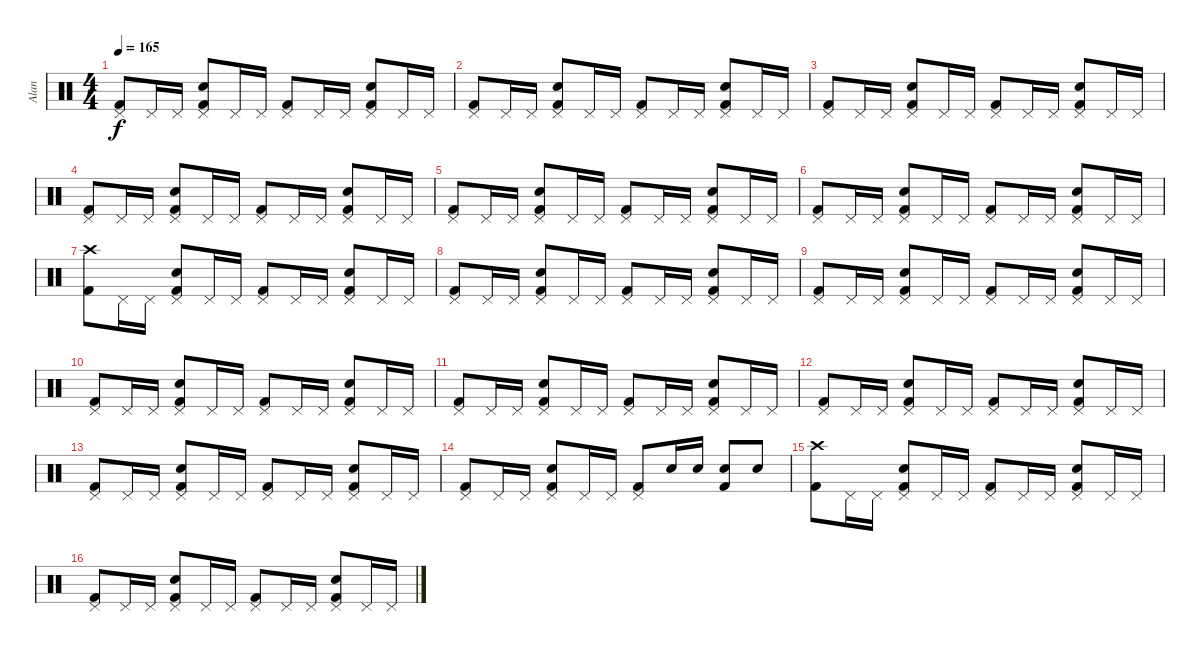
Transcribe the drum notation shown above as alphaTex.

\track ("Alan" "Alan") {instrument percussion}
\staff {score}
\articulation defaults
\ts (4 4)
\tempo 165
\clef neutral
\ks c
("Kick (hit) 2" "Pedal Hi-Hat (hit)").8{dy f} "Pedal Hi-Hat (hit)".16 "Pedal Hi-Hat (hit)".16 ("Pedal Hi-Hat (hit)" "Kick (hit) 2" "Snare (hit) 2").8 "Pedal Hi-Hat (hit)".16 "Pedal Hi-Hat (hit)".16 ("Pedal Hi-Hat (hit)" "Kick (hit) 2").8 "Pedal Hi-Hat (hit)".16 "Pedal Hi-Hat (hit)".16 ("Pedal Hi-Hat (hit)" "Kick (hit) 2" "Snare (hit) 2").8 "Pedal Hi-Hat (hit)".16 "Pedal Hi-Hat (hit)".16 |
("Kick (hit) 2" "Pedal Hi-Hat (hit)").8 "Pedal Hi-Hat (hit)".16 "Pedal Hi-Hat (hit)".16 ("Pedal Hi-Hat (hit)" "Kick (hit) 2" "Snare (hit) 2").8 "Pedal Hi-Hat (hit)".16 "Pedal Hi-Hat (hit)".16 ("Pedal Hi-Hat (hit)" "Kick (hit) 2").8 "Pedal Hi-Hat (hit)".16 "Pedal Hi-Hat (hit)".16 ("Pedal Hi-Hat (hit)" "Kick (hit) 2" "Snare (hit) 2").8 "Pedal Hi-Hat (hit)".16 "Pedal Hi-Hat (hit)".16 |
("Kick (hit) 2" "Pedal Hi-Hat (hit)").8 "Pedal Hi-Hat (hit)".16 "Pedal Hi-Hat (hit)".16 ("Pedal Hi-Hat (hit)" "Kick (hit) 2" "Snare (hit) 2").8 "Pedal Hi-Hat (hit)".16 "Pedal Hi-Hat (hit)".16 ("Pedal Hi-Hat (hit)" "Kick (hit) 2").8 "Pedal Hi-Hat (hit)".16 "Pedal Hi-Hat (hit)".16 ("Pedal Hi-Hat (hit)" "Kick (hit) 2" "Snare (hit) 2").8 "Pedal Hi-Hat (hit)".16 "Pedal Hi-Hat (hit)".16 |
("Kick (hit) 2" "Pedal Hi-Hat (hit)").8 "Pedal Hi-Hat (hit)".16 "Pedal Hi-Hat (hit)".16 ("Pedal Hi-Hat (hit)" "Kick (hit) 2" "Snare (hit) 2").8 "Pedal Hi-Hat (hit)".16 "Pedal Hi-Hat (hit)".16 ("Pedal Hi-Hat (hit)" "Kick (hit) 2").8 "Pedal Hi-Hat (hit)".16 "Pedal Hi-Hat (hit)".16 ("Pedal Hi-Hat (hit)" "Kick (hit) 2" "Snare (hit) 2").8 "Pedal Hi-Hat (hit)".16 "Pedal Hi-Hat (hit)".16 |
("Kick (hit) 2" "Pedal Hi-Hat (hit)").8 "Pedal Hi-Hat (hit)".16 "Pedal Hi-Hat (hit)".16 ("Pedal Hi-Hat (hit)" "Kick (hit) 2" "Snare (hit) 2").8 "Pedal Hi-Hat (hit)".16 "Pedal Hi-Hat (hit)".16 ("Pedal Hi-Hat (hit)" "Kick (hit) 2").8 "Pedal Hi-Hat (hit)".16 "Pedal Hi-Hat (hit)".16 ("Pedal Hi-Hat (hit)" "Kick (hit) 2" "Snare (hit) 2").8 "Pedal Hi-Hat (hit)".16 "Pedal Hi-Hat (hit)".16 |
("Kick (hit) 2" "Pedal Hi-Hat (hit)").8 "Pedal Hi-Hat (hit)".16 "Pedal Hi-Hat (hit)".16 ("Pedal Hi-Hat (hit)" "Kick (hit) 2" "Snare (hit) 2").8 "Pedal Hi-Hat (hit)".16 "Pedal Hi-Hat (hit)".16 ("Pedal Hi-Hat (hit)" "Kick (hit) 2").8 "Pedal Hi-Hat (hit)".16 "Pedal Hi-Hat (hit)".16 ("Pedal Hi-Hat (hit)" "Kick (hit) 2" "Snare (hit) 2").8 "Pedal Hi-Hat (hit)".16 "Pedal Hi-Hat (hit)".16 |
("Kick (hit) 2" "Crash high (hit)").8 "Pedal Hi-Hat (hit)".16 "Pedal Hi-Hat (hit)".16 ("Pedal Hi-Hat (hit)" "Kick (hit) 2" "Snare (hit) 2").8 "Pedal Hi-Hat (hit)".16 "Pedal Hi-Hat (hit)".16 ("Pedal Hi-Hat (hit)" "Kick (hit) 2").8 "Pedal Hi-Hat (hit)".16 "Pedal Hi-Hat (hit)".16 ("Pedal Hi-Hat (hit)" "Kick (hit) 2" "Snare (hit) 2").8 "Pedal Hi-Hat (hit)".16 "Pedal Hi-Hat (hit)".16 |
("Kick (hit) 2" "Pedal Hi-Hat (hit)").8 "Pedal Hi-Hat (hit)".16 "Pedal Hi-Hat (hit)".16 ("Pedal Hi-Hat (hit)" "Kick (hit) 2" "Snare (hit) 2").8 "Pedal Hi-Hat (hit)".16 "Pedal Hi-Hat (hit)".16 ("Pedal Hi-Hat (hit)" "Kick (hit) 2").8 "Pedal Hi-Hat (hit)".16 "Pedal Hi-Hat (hit)".16 ("Pedal Hi-Hat (hit)" "Kick (hit) 2" "Snare (hit) 2").8 "Pedal Hi-Hat (hit)".16 "Pedal Hi-Hat (hit)".16 |
("Kick (hit) 2" "Pedal Hi-Hat (hit)").8 "Pedal Hi-Hat (hit)".16 "Pedal Hi-Hat (hit)".16 ("Pedal Hi-Hat (hit)" "Kick (hit) 2" "Snare (hit) 2").8 "Pedal Hi-Hat (hit)".16 "Pedal Hi-Hat (hit)".16 ("Pedal Hi-Hat (hit)" "Kick (hit) 2").8 "Pedal Hi-Hat (hit)".16 "Pedal Hi-Hat (hit)".16 ("Pedal Hi-Hat (hit)" "Kick (hit) 2" "Snare (hit) 2").8 "Pedal Hi-Hat (hit)".16 "Pedal Hi-Hat (hit)".16 |
("Kick (hit) 2" "Pedal Hi-Hat (hit)").8 "Pedal Hi-Hat (hit)".16 "Pedal Hi-Hat (hit)".16 ("Pedal Hi-Hat (hit)" "Kick (hit) 2" "Snare (hit) 2").8 "Pedal Hi-Hat (hit)".16 "Pedal Hi-Hat (hit)".16 ("Pedal Hi-Hat (hit)" "Kick (hit) 2").8 "Pedal Hi-Hat (hit)".16 "Pedal Hi-Hat (hit)".16 ("Pedal Hi-Hat (hit)" "Kick (hit) 2" "Snare (hit) 2").8 "Pedal Hi-Hat (hit)".16 "Pedal Hi-Hat (hit)".16 |
("Kick (hit) 2" "Pedal Hi-Hat (hit)").8 "Pedal Hi-Hat (hit)".16 "Pedal Hi-Hat (hit)".16 ("Pedal Hi-Hat (hit)" "Kick (hit) 2" "Snare (hit) 2").8 "Pedal Hi-Hat (hit)".16 "Pedal Hi-Hat (hit)".16 ("Pedal Hi-Hat (hit)" "Kick (hit) 2").8 "Pedal Hi-Hat (hit)".16 "Pedal Hi-Hat (hit)".16 ("Pedal Hi-Hat (hit)" "Kick (hit) 2" "Snare (hit) 2").8 "Pedal Hi-Hat (hit)".16 "Pedal Hi-Hat (hit)".16 |
("Kick (hit) 2" "Pedal Hi-Hat (hit)").8 "Pedal Hi-Hat (hit)".16 "Pedal Hi-Hat (hit)".16 ("Pedal Hi-Hat (hit)" "Kick (hit) 2" "Snare (hit) 2").8 "Pedal Hi-Hat (hit)".16 "Pedal Hi-Hat (hit)".16 ("Pedal Hi-Hat (hit)" "Kick (hit) 2").8 "Pedal Hi-Hat (hit)".16 "Pedal Hi-Hat (hit)".16 ("Pedal Hi-Hat (hit)" "Kick (hit) 2" "Snare (hit) 2").8 "Pedal Hi-Hat (hit)".16 "Pedal Hi-Hat (hit)".16 |
("Kick (hit) 2" "Pedal Hi-Hat (hit)").8 "Pedal Hi-Hat (hit)".16 "Pedal Hi-Hat (hit)".16 ("Pedal Hi-Hat (hit)" "Kick (hit) 2" "Snare (hit) 2").8 "Pedal Hi-Hat (hit)".16 "Pedal Hi-Hat (hit)".16 ("Pedal Hi-Hat (hit)" "Kick (hit) 2").8 "Pedal Hi-Hat (hit)".16 "Pedal Hi-Hat (hit)".16 ("Pedal Hi-Hat (hit)" "Kick (hit) 2" "Snare (hit) 2").8 "Pedal Hi-Hat (hit)".16 "Pedal Hi-Hat (hit)".16 |
("Kick (hit) 2" "Pedal Hi-Hat (hit)").8 "Pedal Hi-Hat (hit)".16 "Pedal Hi-Hat (hit)".16 ("Pedal Hi-Hat (hit)" "Kick (hit) 2" "Snare (hit) 2").8 "Pedal Hi-Hat (hit)".16 "Pedal Hi-Hat (hit)".16 ("Pedal Hi-Hat (hit)" "Kick (hit) 2").8 "Snare (hit) 2".16 "Snare (hit) 2".16 ("Snare (hit) 2" "Kick (hit) 2").8 "Snare (hit) 2".8 |
("Kick (hit) 2" "Crash high (hit)").8 "Pedal Hi-Hat (hit)".16 "Pedal Hi-Hat (hit)".16 ("Pedal Hi-Hat (hit)" "Kick (hit) 2" "Snare (hit) 2").8 "Pedal Hi-Hat (hit)".16 "Pedal Hi-Hat (hit)".16 ("Pedal Hi-Hat (hit)" "Kick (hit) 2").8 "Pedal Hi-Hat (hit)".16 "Pedal Hi-Hat (hit)".16 ("Pedal Hi-Hat (hit)" "Kick (hit) 2" "Snare (hit) 2").8 "Pedal Hi-Hat (hit)".16 "Pedal Hi-Hat (hit)".16 |
("Kick (hit) 2" "Pedal Hi-Hat (hit)").8 "Pedal Hi-Hat (hit)".16 "Pedal Hi-Hat (hit)".16 ("Pedal Hi-Hat (hit)" "Kick (hit) 2" "Snare (hit) 2").8 "Pedal Hi-Hat (hit)".16 "Pedal Hi-Hat (hit)".16 ("Pedal Hi-Hat (hit)" "Kick (hit) 2").8 "Pedal Hi-Hat (hit)".16 "Pedal Hi-Hat (hit)".16 ("Pedal Hi-Hat (hit)" "Kick (hit) 2" "Snare (hit) 2").8 "Pedal Hi-Hat (hit)".16 "Pedal Hi-Hat (hit)".16
